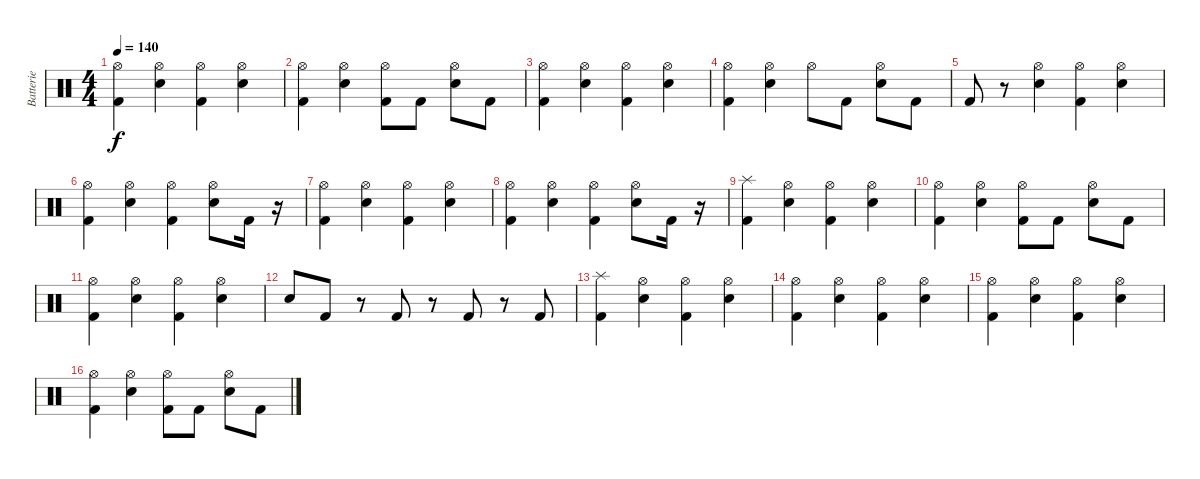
\track ("Batterie" "Batterie") {instrument percussion}
\staff {score}
\articulation defaults
\ts (4 4)
\tempo 140
\clef neutral
\ks c
("Hi-Hat (open)" "Kick (hit) 2").4{dy f} ("Hi-Hat (open)" "Snare (hit) 2").4 ("Hi-Hat (open)" "Kick (hit) 2").4 ("Snare (hit) 2" "Hi-Hat (open)").4 |
("Hi-Hat (open)" "Kick (hit) 2").4 ("Snare (hit) 2" "Hi-Hat (open)").4 ("Hi-Hat (open)" "Kick (hit) 2").8 "Kick (hit) 2".8 ("Snare (hit) 2" "Hi-Hat (open)").8 "Kick (hit) 2".8 |
("Kick (hit) 2" "Hi-Hat (open)").4 ("Hi-Hat (open)" "Snare (hit) 2").4 ("Hi-Hat (open)" "Kick (hit) 2").4 ("Hi-Hat (open)" "Snare (hit) 2").4 |
("Kick (hit) 2" "Hi-Hat (open)").4 ("Snare (hit) 2" "Hi-Hat (open)").4 "Hi-Hat (open)".8 "Kick (hit) 2".8 ("Snare (hit) 2" "Hi-Hat (open)").8 "Kick (hit) 2".8 |
"Kick (hit) 2".8 r.8 ("Hi-Hat (open)" "Snare (hit) 2").4 ("Hi-Hat (open)" "Kick (hit) 2").4 ("Snare (hit) 2" "Hi-Hat (open)").4 |
("Kick (hit) 2" "Hi-Hat (open)").4 ("Hi-Hat (open)" "Snare (hit) 2").4 ("Hi-Hat (open)" "Kick (hit) 2").4 ("Snare (hit) 2" "Hi-Hat (open)").8 "Kick (hit) 2".16 r.16 |
("Kick (hit) 2" "Hi-Hat (open)").4 ("Hi-Hat (open)" "Snare (hit) 2").4 ("Kick (hit) 2" "Hi-Hat (open)").4 ("Hi-Hat (open)" "Snare (hit) 2").4 |
("Hi-Hat (open)" "Kick (hit) 2").4 ("Hi-Hat (open)" "Snare (hit) 2").4 ("Kick (hit) 2" "Hi-Hat (open)").4 ("Snare (hit) 2" "Hi-Hat (open)").8 "Kick (hit) 2".16 r.16 |
("Splash (hit)" "Kick (hit) 2").4 ("Snare (hit) 2" "Hi-Hat (open)").4 ("Hi-Hat (open)" "Kick (hit) 2").4 ("Hi-Hat (open)" "Snare (hit) 2").4 |
("Kick (hit) 2" "Hi-Hat (open)").4 ("Snare (hit) 2" "Hi-Hat (open)").4 ("Kick (hit) 2" "Hi-Hat (open)").8 "Kick (hit) 2".8 ("Snare (hit) 2" "Hi-Hat (open)").8 "Kick (hit) 2".8 |
("Kick (hit) 2" "Hi-Hat (open)").4 ("Hi-Hat (open)" "Snare (hit) 2").4 ("Kick (hit) 2" "Hi-Hat (open)").4 ("Snare (hit) 2" "Hi-Hat (open)").4 |
"Snare (hit) 2".8 "Kick (hit) 2".8 r.8 "Kick (hit) 2".8 r.8 "Kick (hit) 2".8 r.8 "Kick (hit) 2".8 |
("Splash (hit)" "Kick (hit) 2").4 ("Hi-Hat (open)" "Snare (hit) 2").4 ("Kick (hit) 2" "Hi-Hat (open)").4 ("Hi-Hat (open)" "Snare (hit) 2").4 |
("Hi-Hat (open)" "Kick (hit) 2").4 ("Hi-Hat (open)" "Snare (hit) 2").4 ("Kick (hit) 2" "Hi-Hat (open)").4 ("Snare (hit) 2" "Hi-Hat (open)").4 |
("Hi-Hat (open)" "Kick (hit) 2").4 ("Snare (hit) 2" "Hi-Hat (open)").4 ("Kick (hit) 2" "Hi-Hat (open)").4 ("Hi-Hat (open)" "Snare (hit) 2").4 |
("Hi-Hat (open)" "Kick (hit) 2").4 ("Snare (hit) 2" "Hi-Hat (open)").4 ("Kick (hit) 2" "Hi-Hat (open)").8 "Kick (hit) 2".8 ("Hi-Hat (open)" "Snare (hit) 2").8 "Kick (hit) 2".8
